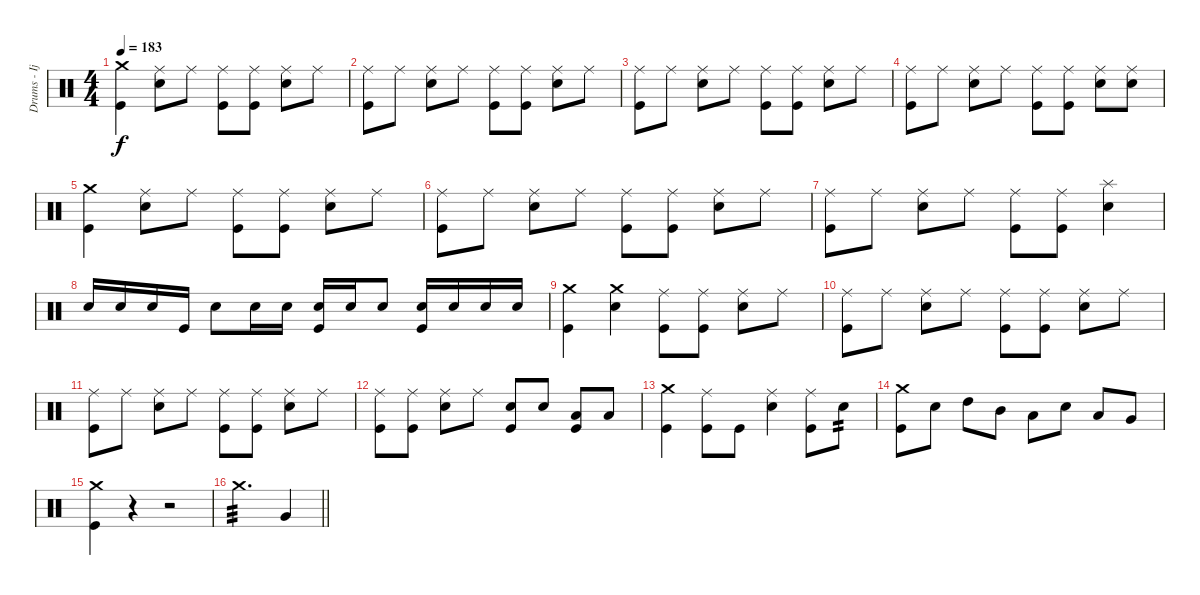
\track ("Drums - Ijichi" "Drums - Ij") {instrument percussion}
\staff {score}
\articulation defaults
\ts (4 4)
\tempo 183
\clef neutral
\ks c
("Crash medium (hit)" "Kick (hit)").4{dy f} ("Ride (middle)" "Electric Snare (hit)").8 "Ride (middle)".8 ("Ride (middle)" "Kick (hit)").8 ("Ride (middle)" "Kick (hit)").8 ("Ride (middle)" "Electric Snare (hit)").8 "Ride (middle)".8 |
("Ride (middle)" "Kick (hit)").8 "Ride (middle)".8 ("Ride (middle)" "Electric Snare (hit)").8 "Ride (middle)".8 ("Ride (middle)" "Kick (hit)").8 ("Ride (middle)" "Kick (hit)").8 ("Ride (middle)" "Electric Snare (hit)").8 "Ride (middle)".8 |
("Ride (middle)" "Kick (hit)").8 "Ride (middle)".8 ("Ride (middle)" "Electric Snare (hit)").8 "Ride (middle)".8 ("Ride (middle)" "Kick (hit)").8 ("Ride (middle)" "Kick (hit)").8 ("Ride (middle)" "Electric Snare (hit)").8 "Ride (middle)".8 |
("Ride (middle)" "Kick (hit)").8 "Ride (middle)".8 ("Ride (middle)" "Electric Snare (hit)").8 "Ride (middle)".8 ("Ride (middle)" "Kick (hit)").8 ("Ride (middle)" "Kick (hit)").8 ("Ride (middle)" "Electric Snare (hit)").8 ("Ride (middle)" "Electric Snare (hit)").8 |
("Crash medium (hit)" "Kick (hit)").4 ("Ride (middle)" "Electric Snare (hit)").8 "Ride (middle)".8 ("Ride (middle)" "Kick (hit)").8 ("Ride (middle)" "Kick (hit)").8 ("Ride (middle)" "Electric Snare (hit)").8 "Ride (middle)".8 |
("Ride (middle)" "Kick (hit)").8 "Ride (middle)".8 ("Ride (middle)" "Electric Snare (hit)").8 "Ride (middle)".8 ("Ride (middle)" "Kick (hit)").8 ("Ride (middle)" "Kick (hit)").8 ("Ride (middle)" "Electric Snare (hit)").8 "Ride (middle)".8 |
("Ride (middle)" "Kick (hit)").8 "Ride (middle)".8 ("Ride (middle)" "Electric Snare (hit)").8 "Ride (middle)".8 ("Ride (middle)" "Kick (hit)").8 ("Ride (middle)" "Kick (hit)").8 ("Splash (hit)" "Electric Snare (hit)").4 |
"Electric Snare (hit)".16 "Electric Snare (hit)".16 "Electric Snare (hit)".16 "Kick (hit)".16 "Electric Snare (hit)".8 "Electric Snare (hit)".16 "Electric Snare (hit)".16 ("Electric Snare (hit)" "Kick (hit)").16 "Electric Snare (hit)".16 "Electric Snare (hit)".8 ("Electric Snare (hit)" "Kick (hit)").16 "Electric Snare (hit)".16 "Electric Snare (hit)".16 "Electric Snare (hit)".16 |
("Crash medium (hit)" "Kick (hit)").4 ("Crash medium (hit)" "Electric Snare (hit)").4 ("Ride (middle)" "Kick (hit)").8 ("Ride (middle)" "Kick (hit)").8 ("Ride (middle)" "Electric Snare (hit)").8 "Ride (middle)".8 |
("Ride (middle)" "Kick (hit)").8 "Ride (middle)".8 ("Ride (middle)" "Electric Snare (hit)").8 "Ride (middle)".8 ("Ride (middle)" "Kick (hit)").8 ("Ride (middle)" "Kick (hit)").8 ("Ride (middle)" "Electric Snare (hit)").8 "Ride (middle)".8 |
("Ride (middle)" "Kick (hit)").8 "Ride (middle)".8 ("Ride (middle)" "Electric Snare (hit)").8 "Ride (middle)".8 ("Ride (middle)" "Kick (hit)").8 ("Ride (middle)" "Kick (hit)").8 ("Ride (middle)" "Electric Snare (hit)").8 "Ride (middle)".8 |
("Ride (middle)" "Kick (hit)").8 ("Ride (middle)" "Kick (hit)").8 ("Ride (middle)" "Electric Snare (hit)").8 "Ride (middle)".8 ("Electric Snare (hit)" "Kick (hit)").8 "Electric Snare (hit)".8 ("Low Tom (hit)" "Kick (hit)").8 "Low Tom (hit)".8 |
("Crash medium (hit)" "Kick (hit)").4 ("Ride (middle)" "Kick (hit)").8 "Kick (hit)".8 ("Ride (middle)" "Electric Snare (hit)").4 ("Ride (middle)" "Kick (hit)").8 "Electric Snare (hit)".8{tp 2} |
("Crash medium (hit)" "Kick (hit)").8 "Electric Snare (hit)".8 "High Tom (hit)".8 "Mid Tom (hit)".8 "Low Tom (hit)".8 "Electric Snare (hit)".8 "Low Tom (hit)".8 "Very Low Tom (hit)".8 |
("Crash medium (hit)" "Kick (hit)").4{volume 11} r.4 r.2 |
\barLineRight lightlight "Crash medium (hit)".2{d tp 3 volume 13} "Very Low Tom (hit)".4
